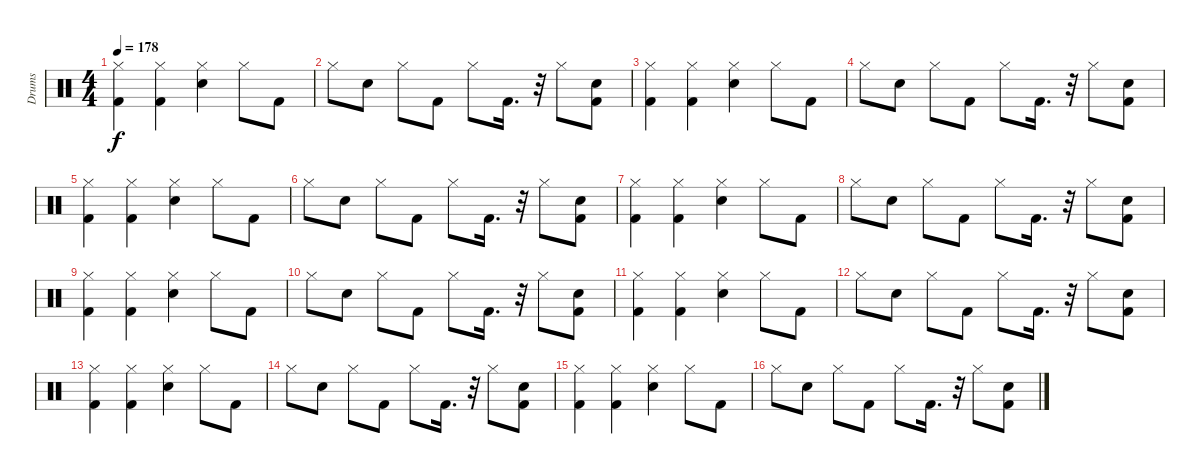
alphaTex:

\track ("Drums" "Drums") {instrument percussion}
\staff {score}
\articulation defaults
\ts (4 4)
\tempo 178
\clef neutral
\ks c
("Hi-Hat (closed)" "Kick (hit) 2").4{dy f} ("Hi-Hat (closed)" "Kick (hit) 2").4 ("Snare (hit) 2" "Hi-Hat (closed)").4 "Hi-Hat (closed)".8 "Kick (hit) 2".8 |
"Hi-Hat (closed)".8 "Snare (hit) 2".8 "Hi-Hat (closed)".8 "Kick (hit) 2".8 "Hi-Hat (closed)".8 "Kick (hit) 2".16{d} r.32 "Hi-Hat (closed)".8 ("Kick (hit) 2" "Snare (hit) 2").8 |
("Hi-Hat (closed)" "Kick (hit) 2").4 ("Hi-Hat (closed)" "Kick (hit) 2").4 ("Snare (hit) 2" "Hi-Hat (closed)").4 "Hi-Hat (closed)".8 "Kick (hit) 2".8 |
"Hi-Hat (closed)".8 "Snare (hit) 2".8 "Hi-Hat (closed)".8 "Kick (hit) 2".8 "Hi-Hat (closed)".8 "Kick (hit) 2".16{d} r.32 "Hi-Hat (closed)".8 ("Kick (hit) 2" "Snare (hit) 2").8 |
("Hi-Hat (closed)" "Kick (hit) 2").4 ("Hi-Hat (closed)" "Kick (hit) 2").4 ("Snare (hit) 2" "Hi-Hat (closed)").4 "Hi-Hat (closed)".8 "Kick (hit) 2".8 |
"Hi-Hat (closed)".8 "Snare (hit) 2".8 "Hi-Hat (closed)".8 "Kick (hit) 2".8 "Hi-Hat (closed)".8 "Kick (hit) 2".16{d} r.32 "Hi-Hat (closed)".8 ("Kick (hit) 2" "Snare (hit) 2").8 |
("Hi-Hat (closed)" "Kick (hit) 2").4 ("Hi-Hat (closed)" "Kick (hit) 2").4 ("Snare (hit) 2" "Hi-Hat (closed)").4 "Hi-Hat (closed)".8 "Kick (hit) 2".8 |
"Hi-Hat (closed)".8 "Snare (hit) 2".8 "Hi-Hat (closed)".8 "Kick (hit) 2".8 "Hi-Hat (closed)".8 "Kick (hit) 2".16{d} r.32 "Hi-Hat (closed)".8 ("Kick (hit) 2" "Snare (hit) 2").8 |
("Hi-Hat (closed)" "Kick (hit) 2").4 ("Hi-Hat (closed)" "Kick (hit) 2").4 ("Snare (hit) 2" "Hi-Hat (closed)").4 "Hi-Hat (closed)".8 "Kick (hit) 2".8 |
"Hi-Hat (closed)".8 "Snare (hit) 2".8 "Hi-Hat (closed)".8 "Kick (hit) 2".8 "Hi-Hat (closed)".8 "Kick (hit) 2".16{d} r.32 "Hi-Hat (closed)".8 ("Kick (hit) 2" "Snare (hit) 2").8 |
("Hi-Hat (closed)" "Kick (hit) 2").4 ("Hi-Hat (closed)" "Kick (hit) 2").4 ("Snare (hit) 2" "Hi-Hat (closed)").4 "Hi-Hat (closed)".8 "Kick (hit) 2".8 |
"Hi-Hat (closed)".8 "Snare (hit) 2".8 "Hi-Hat (closed)".8 "Kick (hit) 2".8 "Hi-Hat (closed)".8 "Kick (hit) 2".16{d} r.32 "Hi-Hat (closed)".8 ("Kick (hit) 2" "Snare (hit) 2").8 |
("Hi-Hat (closed)" "Kick (hit) 2").4 ("Hi-Hat (closed)" "Kick (hit) 2").4 ("Snare (hit) 2" "Hi-Hat (closed)").4 "Hi-Hat (closed)".8 "Kick (hit) 2".8 |
"Hi-Hat (closed)".8 "Snare (hit) 2".8 "Hi-Hat (closed)".8 "Kick (hit) 2".8 "Hi-Hat (closed)".8 "Kick (hit) 2".16{d} r.32 "Hi-Hat (closed)".8 ("Kick (hit) 2" "Snare (hit) 2").8 |
("Hi-Hat (closed)" "Kick (hit) 2").4 ("Hi-Hat (closed)" "Kick (hit) 2").4 ("Snare (hit) 2" "Hi-Hat (closed)").4 "Hi-Hat (closed)".8 "Kick (hit) 2".8 |
"Hi-Hat (closed)".8 "Snare (hit) 2".8 "Hi-Hat (closed)".8 "Kick (hit) 2".8 "Hi-Hat (closed)".8 "Kick (hit) 2".16{d} r.32 "Hi-Hat (closed)".8 ("Kick (hit) 2" "Snare (hit) 2").8
